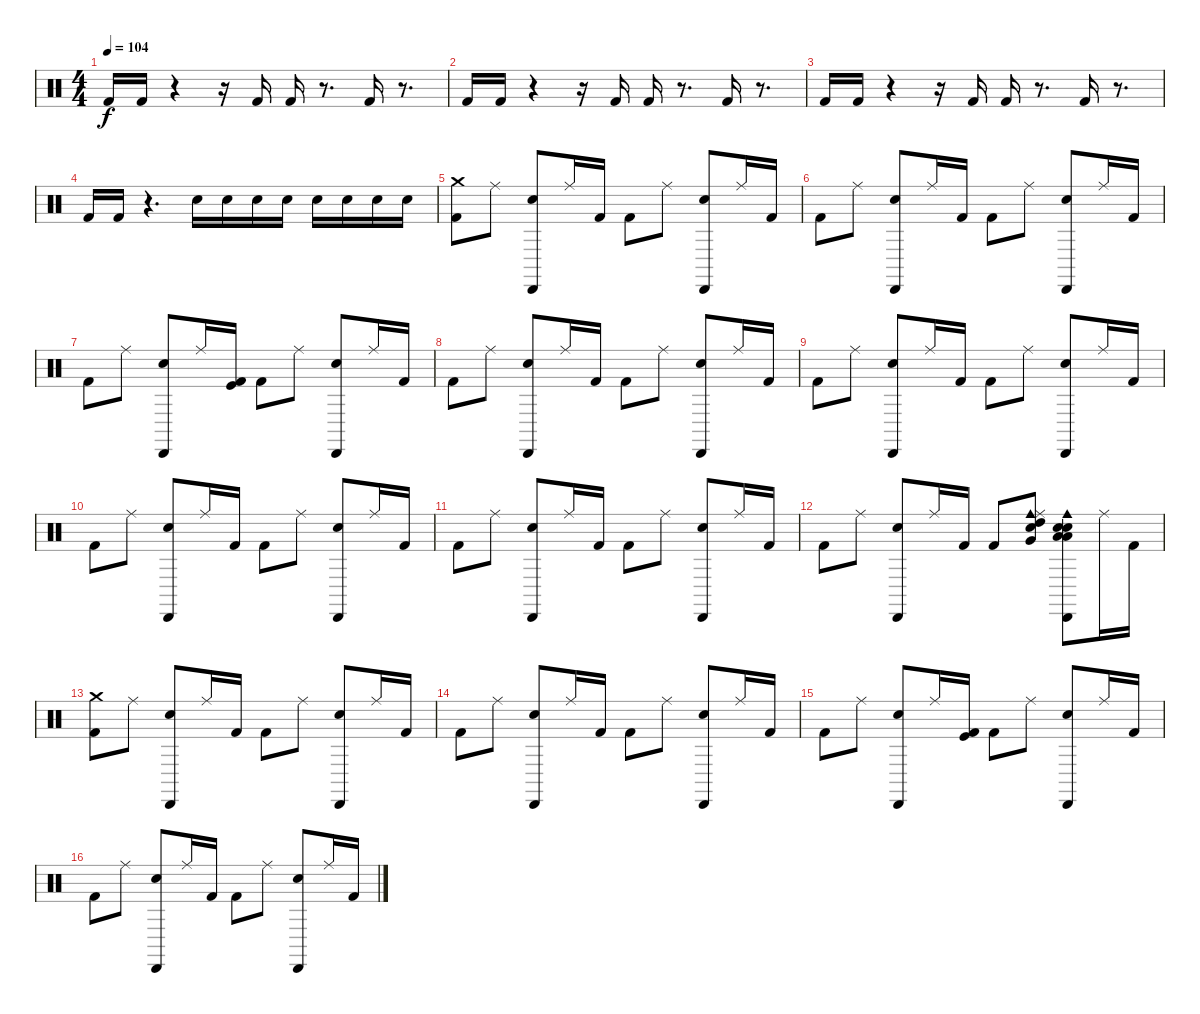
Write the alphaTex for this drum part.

\track "" {instrument percussion}
\staff {score}
\articulation defaults
\ts (4 4)
\tempo 104
\clef neutral
\ks c "Kick (hit) 2".16{dy f} "Kick (hit) 2".16
r.4 r.16 "Kick (hit) 2".16 "Kick (hit) 2".16 r.8{d} "Kick (hit) 2".16 r.8{d} |
"Kick (hit) 2".16 "Kick (hit) 2".16 r.4 r.16 "Kick (hit) 2".16 "Kick (hit) 2".16 r.8{d} "Kick (hit) 2".16 r.8{d} |
"Kick (hit) 2".16 "Kick (hit) 2".16 r.4 r.16 "Kick (hit) 2".16 "Kick (hit) 2".16 r.8{d} "Kick (hit) 2".16 r.8{d} |
"Kick (hit) 2".16 "Kick (hit) 2".16 r.4{d} "Electric Snare (hit)".16 "Electric Snare (hit)".16 "Electric Snare (hit)".16 "Electric Snare (hit)".16 "Snare (hit) 2".16 "Snare (hit) 2".16 "Snare (hit) 2".16 "Snare (hit) 2".16 |
("Crash medium (hit)" "Kick (hit) 2").8 "Ride (middle)".8 ("Hand Clap (hit)" "Cabasa (hit)").8 "Ride (middle)".16 "Kick (hit) 2".16 "Kick (hit) 2".8 "Ride (middle)".8 ("Hand Clap (hit)" "Cabasa (hit)").8 "Ride (middle)".16 "Kick (hit) 2".16 |
"Kick (hit) 2".8 "Ride (middle)".8 ("Hand Clap (hit)" "Cabasa (hit)").8 "Ride (middle)".16 "Kick (hit) 2".16 "Kick (hit) 2".8 "Ride (middle)".8 ("Hand Clap (hit)" "Cabasa (hit)").8 "Ride (middle)".16 "Kick (hit) 2".16 |
"Kick (hit) 2".8 "Ride (middle)".8 ("Hand Clap (hit)" "Cabasa (hit)").8 "Ride (middle)".16 ("Kick (hit) 2" "Kick (hit)").16 "Kick (hit) 2".8 "Ride (middle)".8 ("Hand Clap (hit)" "Cabasa (hit)").8 "Ride (middle)".16 "Kick (hit) 2".16 |
"Kick (hit) 2".8 "Ride (middle)".8 ("Cabasa (hit)" "Hand Clap (hit)").8 "Ride (middle)".16 "Kick (hit) 2".16 "Kick (hit) 2".8 "Ride (middle)".8 ("Cabasa (hit)" "Hand Clap (hit)").8 "Ride (middle)".16 "Kick (hit) 2".16 |
"Kick (hit) 2".8 "Ride (middle)".8 ("Cabasa (hit)" "Hand Clap (hit)").8 "Ride (middle)".16 "Kick (hit) 2".16 "Kick (hit) 2".8 "Ride (middle)".8 ("Cabasa (hit)" "Hand Clap (hit)").8 "Ride (middle)".16 "Kick (hit) 2".16 |
"Kick (hit) 2".8 "Ride (middle)".8 ("Cabasa (hit)" "Hand Clap (hit)").8 "Ride (middle)".16 "Kick (hit) 2".16 "Kick (hit) 2".8 "Ride (middle)".8 ("Cabasa (hit)" "Hand Clap (hit)").8 "Ride (middle)".16 "Kick (hit) 2".16 |
"Kick (hit) 2".8 "Ride (middle)".8 ("Cabasa (hit)" "Hand Clap (hit)").8 "Ride (middle)".16 "Kick (hit) 2".16 "Kick (hit) 2".8 "Ride (middle)".8 ("Cabasa (hit)" "Hand Clap (hit)").8 "Ride (middle)".16 "Kick (hit) 2".16 |
"Kick (hit) 2".8 "Ride (middle)".8 ("Cabasa (hit)" "Hand Clap (hit)").8 "Ride (middle)".16 "Kick (hit) 2".16 "Kick (hit) 2".8 ("Very Low Tom (hit)" "Electric Snare (hit)" "Cowbell medium (hit)" "High Tom (hit)" "Ride (middle)").8 ("Snare (hit) 2" "Low Floor Tom (hit)" "Low Tom (hit)" "Cowbell medium (hit)" "Cabasa (hit)" "Hand Clap (hit)").8 "Ride (middle)".16 "Kick (hit) 2".16 |
("Crash medium (hit)" "Kick (hit) 2").8 "Ride (middle)".8 ("Hand Clap (hit)" "Cabasa (hit)").8 "Ride (middle)".16 "Kick (hit) 2".16 "Kick (hit) 2".8 "Ride (middle)".8 ("Hand Clap (hit)" "Cabasa (hit)").8 "Ride (middle)".16 "Kick (hit) 2".16 |
"Kick (hit) 2".8 "Ride (middle)".8 ("Hand Clap (hit)" "Cabasa (hit)").8 "Ride (middle)".16 "Kick (hit) 2".16 "Kick (hit) 2".8 "Ride (middle)".8 ("Hand Clap (hit)" "Cabasa (hit)").8 "Ride (middle)".16 "Kick (hit) 2".16 |
"Kick (hit) 2".8 "Ride (middle)".8 ("Hand Clap (hit)" "Cabasa (hit)").8 "Ride (middle)".16 ("Kick (hit) 2" "Kick (hit)").16 "Kick (hit) 2".8 "Ride (middle)".8 ("Hand Clap (hit)" "Cabasa (hit)").8 "Ride (middle)".16 "Kick (hit) 2".16 |
"Kick (hit) 2".8 "Ride (middle)".8 ("Cabasa (hit)" "Hand Clap (hit)").8 "Ride (middle)".16 "Kick (hit) 2".16 "Kick (hit) 2".8 "Ride (middle)".8 ("Cabasa (hit)" "Hand Clap (hit)").8 "Ride (middle)".16 "Kick (hit) 2".16
